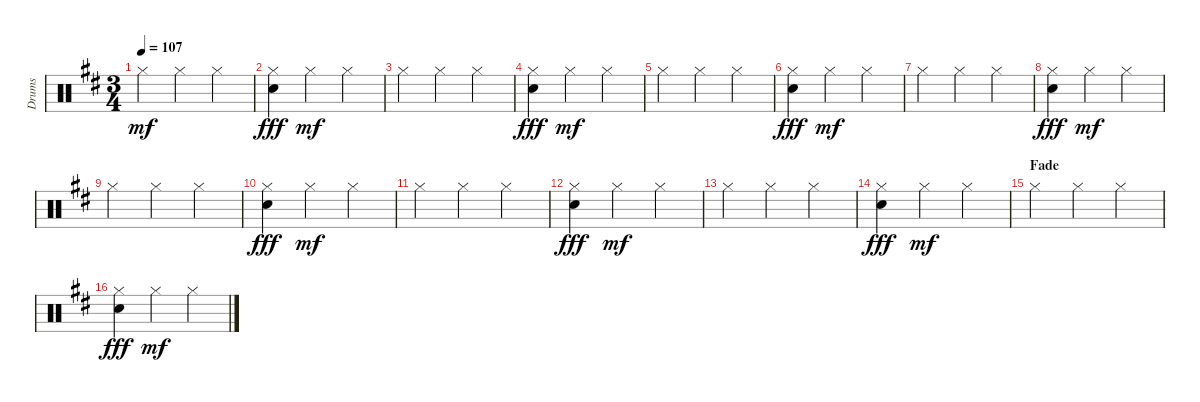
\track ("Drums" "Drums") {instrument percussion}
\staff {score}
\articulation defaults
\ts (3 4)
\tempo 107
\clef neutral
\ks d "Hi-Hat (closed)".4{dy mf} "Hi-Hat (closed)".4 "Hi-Hat (closed)".4
|
("Hi-Hat (closed)" "Electric Snare (hit)").4{dy fff} "Hi-Hat (closed)".4{dy mf} "Hi-Hat (closed)".4 |
"Hi-Hat (closed)".4 "Hi-Hat (closed)".4 "Hi-Hat (closed)".4 |
("Hi-Hat (closed)" "Electric Snare (hit)").4{dy fff} "Hi-Hat (closed)".4{dy mf} "Hi-Hat (closed)".4 |
"Hi-Hat (closed)".4 "Hi-Hat (closed)".4 "Hi-Hat (closed)".4 |
("Hi-Hat (closed)" "Electric Snare (hit)").4{dy fff} "Hi-Hat (closed)".4{dy mf} "Hi-Hat (closed)".4 |
"Hi-Hat (closed)".4 "Hi-Hat (closed)".4 "Hi-Hat (closed)".4 |
("Hi-Hat (closed)" "Electric Snare (hit)").4{dy fff} "Hi-Hat (closed)".4{dy mf} "Hi-Hat (closed)".4 |
"Hi-Hat (closed)".4 "Hi-Hat (closed)".4 "Hi-Hat (closed)".4 |
("Hi-Hat (closed)" "Electric Snare (hit)").4{dy fff} "Hi-Hat (closed)".4{dy mf} "Hi-Hat (closed)".4 |
"Hi-Hat (closed)".4 "Hi-Hat (closed)".4 "Hi-Hat (closed)".4 |
("Hi-Hat (closed)" "Electric Snare (hit)").4{dy fff} "Hi-Hat (closed)".4{dy mf} "Hi-Hat (closed)".4 |
"Hi-Hat (closed)".4 "Hi-Hat (closed)".4 "Hi-Hat (closed)".4 |
("Hi-Hat (closed)" "Electric Snare (hit)").4{dy fff} "Hi-Hat (closed)".4{dy mf} "Hi-Hat (closed)".4 |
\section ("" "Fade")
"Hi-Hat (closed)".4{volume 5} "Hi-Hat (closed)".4 "Hi-Hat (closed)".4 |
("Hi-Hat (closed)" "Electric Snare (hit)").4{dy fff} "Hi-Hat (closed)".4{dy mf} "Hi-Hat (closed)".4
